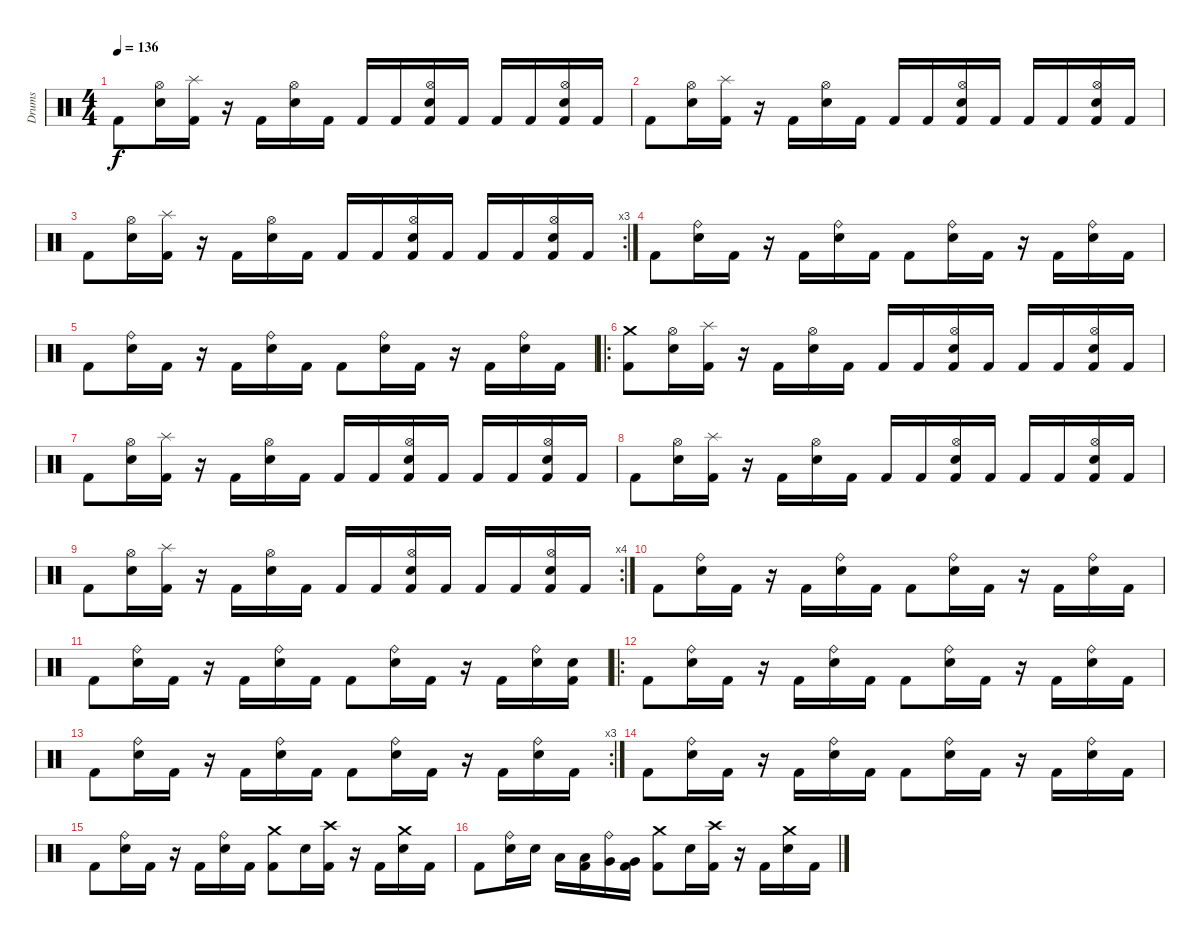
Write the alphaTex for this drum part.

\track ("Drums" "Drums") {instrument percussion}
\staff {score}
\articulation defaults
\ts (4 4)
\tempo 136
\clef neutral
\ks c "Kick (hit) 2".8{dy f}
("Hi-Hat (open)" "Electric Snare (hit)").16 ("Splash (hit)" "Kick (hit) 2").16 r.16 "Kick (hit) 2".16 ("Hi-Hat (open)" "Electric Snare (hit)").16 "Kick (hit) 2".16 "Kick (hit) 2".16 "Kick (hit) 2".16 ("Hi-Hat (open)" "Electric Snare (hit)" "Kick (hit) 2").16 "Kick (hit) 2".16 "Kick (hit) 2".16 "Kick (hit) 2".16 ("Hi-Hat (open)" "Electric Snare (hit)" "Kick (hit) 2").16 "Kick (hit) 2".16 |
"Kick (hit) 2".8 ("Hi-Hat (open)" "Electric Snare (hit)").16 ("Splash (hit)" "Kick (hit) 2").16 r.16 "Kick (hit) 2".16 ("Hi-Hat (open)" "Electric Snare (hit)").16 "Kick (hit) 2".16 "Kick (hit) 2".16 "Kick (hit) 2".16 ("Hi-Hat (open)" "Electric Snare (hit)" "Kick (hit) 2").16 "Kick (hit) 2".16 "Kick (hit) 2".16 "Kick (hit) 2".16 ("Hi-Hat (open)" "Electric Snare (hit)" "Kick (hit) 2").16 "Kick (hit) 2".16 |
\rc 3 "Kick (hit) 2".8
("Hi-Hat (open)" "Electric Snare (hit)").16 ("Splash (hit)" "Kick (hit) 2").16 r.16 "Kick (hit) 2".16 ("Hi-Hat (open)" "Electric Snare (hit)").16 "Kick (hit) 2".16 "Kick (hit) 2".16 "Kick (hit) 2".16 ("Hi-Hat (open)" "Electric Snare (hit)" "Kick (hit) 2").16 "Kick (hit) 2".16 "Kick (hit) 2".16 "Kick (hit) 2".16 ("Hi-Hat (open)" "Electric Snare (hit)" "Kick (hit) 2").16 "Kick (hit) 2".16 |
"Kick (hit) 2".8 ("Ride (bell)" "Electric Snare (hit)").16 "Kick (hit) 2".16 r.16 "Kick (hit) 2".16 ("Ride (bell)" "Electric Snare (hit)").16 "Kick (hit) 2".16 "Kick (hit) 2".8 ("Ride (bell)" "Electric Snare (hit)").16 "Kick (hit) 2".16 r.16 "Kick (hit) 2".16 ("Ride (bell)" "Electric Snare (hit)").16 "Kick (hit) 2".16 |
"Kick (hit) 2".8 ("Ride (bell)" "Electric Snare (hit)").16 "Kick (hit) 2".16 r.16 "Kick (hit) 2".16 ("Ride (bell)" "Electric Snare (hit)").16 "Kick (hit) 2".16 "Kick (hit) 2".8 ("Ride (bell)" "Electric Snare (hit)").16 "Kick (hit) 2".16 r.16 "Kick (hit) 2".16 ("Ride (bell)" "Electric Snare (hit)").16 "Kick (hit) 2".16 |
\ro
("Crash medium (hit)" "Kick (hit) 2").8 ("Hi-Hat (open)" "Electric Snare (hit)").16 ("Splash (hit)" "Kick (hit) 2").16 r.16 "Kick (hit) 2".16 ("Hi-Hat (open)" "Electric Snare (hit)").16 "Kick (hit) 2".16 "Kick (hit) 2".16 "Kick (hit) 2".16 ("Hi-Hat (open)" "Electric Snare (hit)" "Kick (hit) 2").16 "Kick (hit) 2".16 "Kick (hit) 2".16 "Kick (hit) 2".16 ("Hi-Hat (open)" "Electric Snare (hit)" "Kick (hit) 2").16 "Kick (hit) 2".16 |
"Kick (hit) 2".8 ("Hi-Hat (open)" "Electric Snare (hit)").16 ("Splash (hit)" "Kick (hit) 2").16 r.16 "Kick (hit) 2".16 ("Hi-Hat (open)" "Electric Snare (hit)").16 "Kick (hit) 2".16 "Kick (hit) 2".16 "Kick (hit) 2".16 ("Hi-Hat (open)" "Electric Snare (hit)" "Kick (hit) 2").16 "Kick (hit) 2".16 "Kick (hit) 2".16 "Kick (hit) 2".16 ("Hi-Hat (open)" "Electric Snare (hit)" "Kick (hit) 2").16 "Kick (hit) 2".16 |
"Kick (hit) 2".8 ("Hi-Hat (open)" "Electric Snare (hit)").16 ("Splash (hit)" "Kick (hit) 2").16 r.16 "Kick (hit) 2".16 ("Hi-Hat (open)" "Electric Snare (hit)").16 "Kick (hit) 2".16 "Kick (hit) 2".16 "Kick (hit) 2".16 ("Hi-Hat (open)" "Electric Snare (hit)" "Kick (hit) 2").16 "Kick (hit) 2".16 "Kick (hit) 2".16 "Kick (hit) 2".16 ("Hi-Hat (open)" "Electric Snare (hit)" "Kick (hit) 2").16 "Kick (hit) 2".16 |
\rc 4 "Kick (hit) 2".8
("Hi-Hat (open)" "Electric Snare (hit)").16 ("Splash (hit)" "Kick (hit) 2").16 r.16 "Kick (hit) 2".16 ("Hi-Hat (open)" "Electric Snare (hit)").16 "Kick (hit) 2".16 "Kick (hit) 2".16 "Kick (hit) 2".16 ("Hi-Hat (open)" "Electric Snare (hit)" "Kick (hit) 2").16 "Kick (hit) 2".16 "Kick (hit) 2".16 "Kick (hit) 2".16 ("Hi-Hat (open)" "Electric Snare (hit)" "Kick (hit) 2").16 "Kick (hit) 2".16 |
"Kick (hit) 2".8 ("Ride (bell)" "Electric Snare (hit)").16 "Kick (hit) 2".16 r.16 "Kick (hit) 2".16 ("Ride (bell)" "Electric Snare (hit)").16 "Kick (hit) 2".16 "Kick (hit) 2".8 ("Ride (bell)" "Electric Snare (hit)").16 "Kick (hit) 2".16 r.16 "Kick (hit) 2".16 ("Ride (bell)" "Electric Snare (hit)").16 "Kick (hit) 2".16 |
"Kick (hit) 2".8 ("Ride (bell)" "Electric Snare (hit)").16 "Kick (hit) 2".16 r.16 "Kick (hit) 2".16 ("Ride (bell)" "Electric Snare (hit)").16 "Kick (hit) 2".16 "Kick (hit) 2".8 ("Ride (bell)" "Electric Snare (hit)").16 "Kick (hit) 2".16 r.16 "Kick (hit) 2".16 ("Ride (bell)" "Electric Snare (hit)").16 ("Electric Snare (hit)" "Kick (hit) 2").16 |
\ro "Kick (hit) 2".8
("Ride (bell)" "Electric Snare (hit)").16 "Kick (hit) 2".16 r.16 "Kick (hit) 2".16 ("Ride (bell)" "Electric Snare (hit)").16 "Kick (hit) 2".16 "Kick (hit) 2".8 ("Ride (bell)" "Electric Snare (hit)").16 "Kick (hit) 2".16 r.16 "Kick (hit) 2".16 ("Ride (bell)" "Electric Snare (hit)").16 "Kick (hit) 2".16 |
\rc 3 "Kick (hit) 2".8
("Ride (bell)" "Electric Snare (hit)").16 "Kick (hit) 2".16 r.16 "Kick (hit) 2".16 ("Ride (bell)" "Electric Snare (hit)").16 "Kick (hit) 2".16 "Kick (hit) 2".8 ("Ride (bell)" "Electric Snare (hit)").16 "Kick (hit) 2".16 r.16 "Kick (hit) 2".16 ("Ride (bell)" "Electric Snare (hit)").16 "Kick (hit) 2".16 |
"Kick (hit) 2".8 ("Ride (bell)" "Electric Snare (hit)").16 "Kick (hit) 2".16 r.16 "Kick (hit) 2".16 ("Ride (bell)" "Electric Snare (hit)").16 "Kick (hit) 2".16 "Kick (hit) 2".8 ("Ride (bell)" "Electric Snare (hit)").16 "Kick (hit) 2".16 r.16 "Kick (hit) 2".16 ("Ride (bell)" "Electric Snare (hit)").16 "Kick (hit) 2".16 |
"Kick (hit) 2".8 ("Ride (bell)" "Electric Snare (hit)").16 "Kick (hit) 2".16 r.16 "Kick (hit) 2".16 ("Ride (bell)" "Electric Snare (hit)").16 "Kick (hit) 2".16 ("Crash medium (hit)" "Kick (hit) 2").8 "Electric Snare (hit)".16 ("Crash high (hit)" "Kick (hit) 2").16 r.16 "Kick (hit) 2".16 ("Crash medium (hit)" "Electric Snare (hit)").16 "Kick (hit) 2".16 |
"Kick (hit) 2".8 ("Ride (bell)" "Electric Snare (hit)").16 "Electric Snare (hit)".16 "Low Tom (hit)".16 ("Low Tom (hit)" "Kick (hit) 2").16 ("Ride (bell)" "Very Low Tom (hit)").16 ("Very Low Tom (hit)" "Kick (hit) 2").16 ("Crash medium (hit)" "Kick (hit) 2").8 "Electric Snare (hit)".16 ("Crash high (hit)" "Kick (hit) 2").16 r.16 "Kick (hit) 2".16 ("Crash medium (hit)" "Electric Snare (hit)").16 "Kick (hit) 2".16
